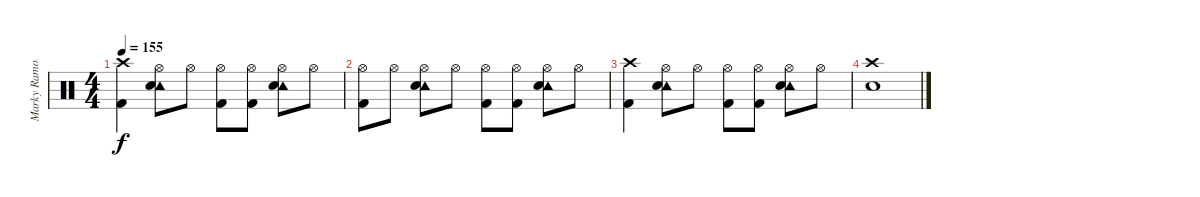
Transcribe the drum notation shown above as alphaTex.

\track ("Marky Ramone" "Marky Ramo") {instrument percussion}
\staff {score}
\articulation defaults
\ts (4 4)
\tempo 155
\clef neutral
\ks c
("Kick (hit) 2" "Crash high (hit)").4{dy f} ("Tambourine (hit)" "Electric Snare (hit)" "Hi-Hat (open)").8 "Hi-Hat (open)".8 ("Kick (hit) 2" "Hi-Hat (open)").8 ("Kick (hit) 2" "Hi-Hat (open)").8 ("Tambourine (hit)" "Electric Snare (hit)" "Hi-Hat (open)").8 "Hi-Hat (open)".8 |
("Kick (hit) 2" "Hi-Hat (open)").8 "Hi-Hat (open)".8 ("Tambourine (hit)" "Electric Snare (hit)" "Hi-Hat (open)").8 "Hi-Hat (open)".8 ("Kick (hit) 2" "Hi-Hat (open)").8 ("Kick (hit) 2" "Hi-Hat (open)").8 ("Tambourine (hit)" "Electric Snare (hit)" "Hi-Hat (open)").8 "Hi-Hat (open)".8 |
("Kick (hit) 2" "Crash high (hit)").4 ("Tambourine (hit)" "Electric Snare (hit)" "Hi-Hat (open)").8 "Hi-Hat (open)".8 ("Kick (hit) 2" "Hi-Hat (open)").8 ("Kick (hit) 2" "Hi-Hat (open)").8 ("Tambourine (hit)" "Electric Snare (hit)" "Hi-Hat (open)").8 "Hi-Hat (open)".8 |
("Electric Snare (hit)" "Crash high (hit)").1
